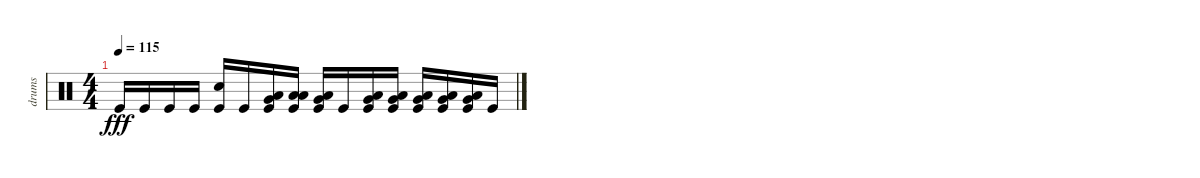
\track ("drums" "drums") {instrument percussion}
\staff {score}
\articulation defaults
\ts (4 4)
\tempo 115
\clef neutral
\ks c "Kick (hit)".16{dy fff} "Kick (hit)".16 "Kick (hit)".16 "Kick (hit)".16
("Electric Snare (hit)" "Kick (hit)").16 "Kick (hit)".16 ("Low Tom (hit)" "Very Low Tom (hit)" "Kick (hit)").16 ("Low Tom (hit)" "Low Tom (hit)" "Kick (hit)").16 ("Low Tom (hit)" "Very Low Tom (hit)" "Kick (hit)").16 "Kick (hit)".16 ("Very Low Tom (hit)" "Low Floor Tom (hit)" "Kick (hit)").16 ("Very Low Tom (hit)" "Low Floor Tom (hit)" "Kick (hit)").16 ("Very Low Tom (hit)" "Low Floor Tom (hit)" "Kick (hit)").16 ("Very Low Tom (hit)" "Low Floor Tom (hit)" "Kick (hit)").16 ("Very Low Tom (hit)" "Low Floor Tom (hit)" "Kick (hit)").16 "Kick (hit)".16
